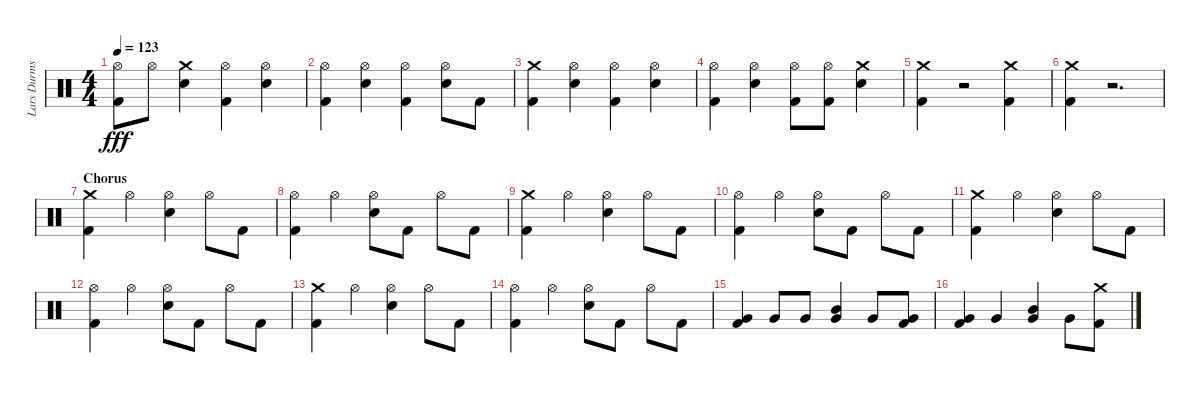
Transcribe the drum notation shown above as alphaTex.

\track ("Lars Durms" "Lars Durms") {instrument percussion}
\staff {score}
\articulation defaults
\ts (4 4)
\tempo 123
\clef neutral
\ks c
("Kick (hit) 2" "Hi-Hat (open)").8{dy fff} "Hi-Hat (open)".8 ("Crash medium (hit)" "Snare (hit) 2").4 ("Hi-Hat (open)" "Kick (hit) 2").4 ("Snare (hit) 2" "Hi-Hat (open)").4 |
("Hi-Hat (open)" "Kick (hit) 2").4 ("Hi-Hat (open)" "Snare (hit) 2").4 ("Hi-Hat (open)" "Kick (hit) 2").4 ("Snare (hit) 2" "Hi-Hat (open)").8 "Kick (hit) 2".8 |
("Kick (hit) 2" "Crash medium (hit)").4 ("Hi-Hat (open)" "Snare (hit) 2").4 ("Kick (hit) 2" "Hi-Hat (open)").4 ("Hi-Hat (open)" "Snare (hit) 2").4 |
("Hi-Hat (open)" "Kick (hit) 2").4 ("Hi-Hat (open)" "Snare (hit) 2").4 ("Kick (hit) 2" "Hi-Hat (open)").8 ("Kick (hit) 2" "Hi-Hat (open)").8 ("Crash medium (hit)" "Snare (hit) 2").4 |
("Crash medium (hit)" "Kick (hit) 2").4 r.2 ("Kick (hit) 2" "Crash medium (hit)").4 |
("Crash medium (hit)" "Kick (hit) 2").4 r.2{d} |
\section ("" "Chorus")
("Kick (hit) 2" "Crash medium (hit)").4 "Hi-Hat (open)".4 ("Snare (hit) 2" "Hi-Hat (open)").4 "Hi-Hat (open)".8 "Kick (hit) 2".8 |
("Hi-Hat (open)" "Kick (hit) 2").4 "Hi-Hat (open)".4 ("Snare (hit) 2" "Hi-Hat (open)").8 "Kick (hit) 2".8 "Hi-Hat (open)".8 "Kick (hit) 2".8 |
("Kick (hit) 2" "Crash medium (hit)").4 "Hi-Hat (open)".4 ("Snare (hit) 2" "Hi-Hat (open)").4 "Hi-Hat (open)".8 "Kick (hit) 2".8 |
("Hi-Hat (open)" "Kick (hit) 2").4 "Hi-Hat (open)".4 ("Snare (hit) 2" "Hi-Hat (open)").8 "Kick (hit) 2".8 "Hi-Hat (open)".8 "Kick (hit) 2".8 |
("Kick (hit) 2" "Crash medium (hit)").4 "Hi-Hat (open)".4 ("Snare (hit) 2" "Hi-Hat (open)").4 "Hi-Hat (open)".8 "Kick (hit) 2".8 |
("Hi-Hat (open)" "Kick (hit) 2").4 "Hi-Hat (open)".4 ("Snare (hit) 2" "Hi-Hat (open)").8 "Kick (hit) 2".8 "Hi-Hat (open)".8 "Kick (hit) 2".8 |
("Kick (hit) 2" "Crash medium (hit)").4 "Hi-Hat (open)".4 ("Snare (hit) 2" "Hi-Hat (open)").4 "Hi-Hat (open)".8 "Kick (hit) 2".8 |
("Hi-Hat (open)" "Kick (hit) 2").4 "Hi-Hat (open)".4 ("Snare (hit) 2" "Hi-Hat (open)").8 "Kick (hit) 2".8 "Hi-Hat (open)".8 "Kick (hit) 2".8 |
("Kick (hit) 2" "Very Low Tom (hit)").4 "Very Low Tom (hit)".8 "Very Low Tom (hit)".8 ("Mid Tom (hit)" "Very Low Tom (hit)").4 "Very Low Tom (hit)".8 ("Kick (hit) 2" "Very Low Tom (hit)").8 |
("Kick (hit) 2" "Very Low Tom (hit)").4 "Very Low Tom (hit)".4 ("Very Low Tom (hit)" "Mid Tom (hit)").4 "Very Low Tom (hit)".8 ("Kick (hit) 2" "Crash medium (hit)").8
